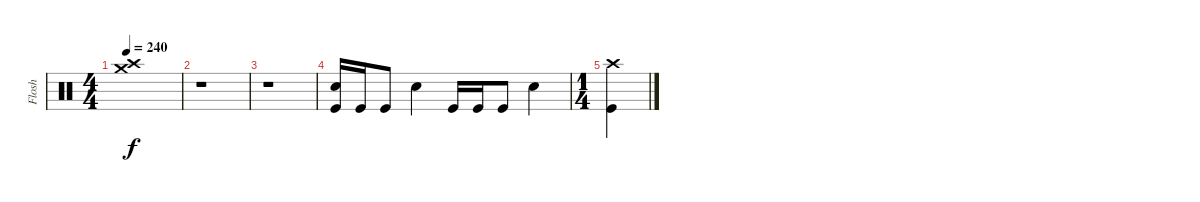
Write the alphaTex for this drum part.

\track ("Flosh" "Flosh") {instrument percussion}
\staff {score}
\articulation defaults
\ts (4 4)
\tempo 240
\clef neutral
\ks c
("Crash high (hit)" "Crash medium (hit)").1{dy f} |
r.1 |
r.1 |
("Snare (hit) 2" "Kick (hit)").16 "Kick (hit)".16 "Kick (hit)".8 "Snare (hit) 2".4 "Kick (hit)".16 "Kick (hit)".16 "Kick (hit)".8 "Snare (hit) 2".4 |
\ts (1 4)
("Crash high (hit)" "Kick (hit)").4
